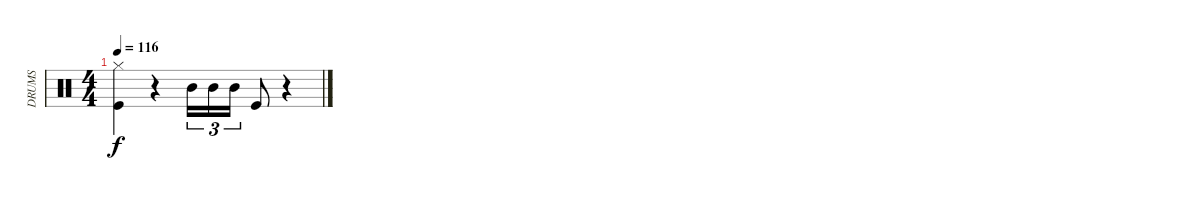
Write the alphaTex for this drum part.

\track ("DRUMS" "DRUMS") {instrument percussion}
\staff {score}
\articulation defaults
\ts (4 4)
\tempo 116
\clef neutral
\ks c
("Hi-Hat (closed)" "Kick (hit)").4{dy f} r.4 "Mid Tom (hit)".16{tu (3 2)} "Mid Tom (hit)".16{tu (3 2)} "Mid Tom (hit)".16{tu (3 2)} "Kick (hit)".8 r.4
